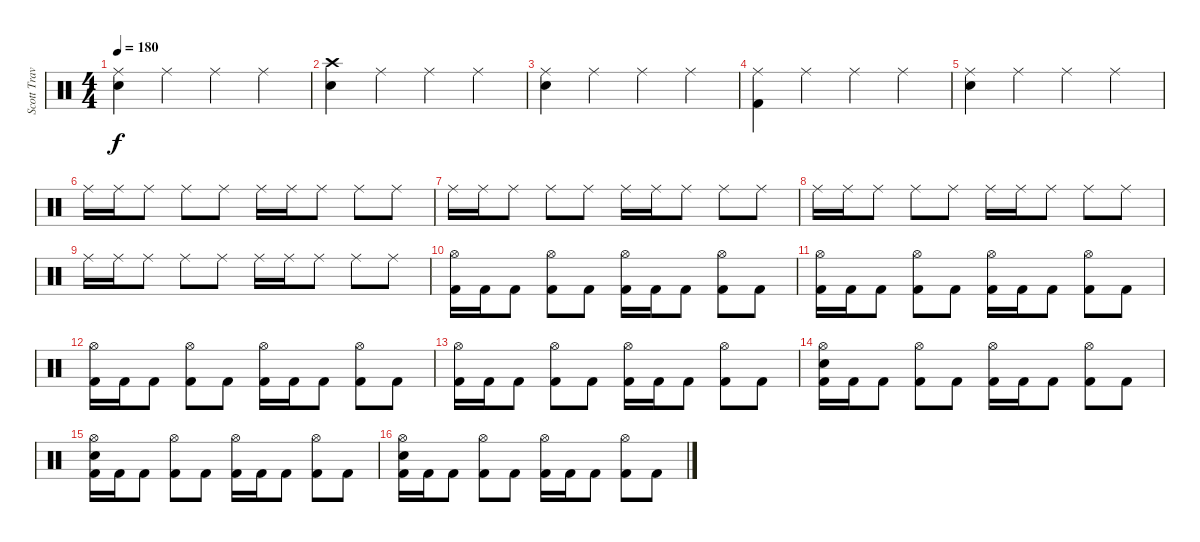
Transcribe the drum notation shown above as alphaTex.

\track ("Scott Travis" "Scott Trav") {instrument percussion}
\staff {score}
\articulation defaults
\ts (4 4)
\tempo 180
\clef neutral
\ks c
("Ride (middle)" "Snare (hit) 2").4{dy f} "Ride (middle)".4 "Ride (middle)".4 "Ride (middle)".4 |
("Crash high (hit)" "Snare (hit) 2").4 "Ride (middle)".4 "Ride (middle)".4 "Ride (middle)".4 |
("Ride (middle)" "Snare (hit) 2").4 "Ride (middle)".4 "Ride (middle)".4 "Ride (middle)".4 |
("Ride (middle)" "Kick (hit) 2").4 "Ride (middle)".4 "Ride (middle)".4 "Ride (middle)".4 |
("Ride (middle)" "Snare (hit) 2").4 "Ride (middle)".4 "Ride (middle)".4 "Ride (middle)".4 |
"Ride (middle)".16 "Ride (middle)".16 "Ride (middle)".8 "Ride (middle)".8 "Ride (middle)".8 "Ride (middle)".16 "Ride (middle)".16 "Ride (middle)".8 "Ride (middle)".8 "Ride (middle)".8 |
"Ride (middle)".16 "Ride (middle)".16 "Ride (middle)".8 "Ride (middle)".8 "Ride (middle)".8 "Ride (middle)".16 "Ride (middle)".16 "Ride (middle)".8 "Ride (middle)".8 "Ride (middle)".8 |
"Ride (middle)".16 "Ride (middle)".16 "Ride (middle)".8 "Ride (middle)".8 "Ride (middle)".8 "Ride (middle)".16 "Ride (middle)".16 "Ride (middle)".8 "Ride (middle)".8 "Ride (middle)".8 |
"Ride (middle)".16 "Ride (middle)".16 "Ride (middle)".8 "Ride (middle)".8 "Ride (middle)".8 "Ride (middle)".16 "Ride (middle)".16 "Ride (middle)".8 "Ride (middle)".8 "Ride (middle)".8 |
("Hi-Hat (open)" "Kick (hit) 2").16 "Kick (hit) 2".16 "Kick (hit) 2".8 ("Hi-Hat (open)" "Kick (hit) 2").8 "Kick (hit) 2".8 ("Hi-Hat (open)" "Kick (hit) 2").16 "Kick (hit) 2".16 "Kick (hit) 2".8 ("Hi-Hat (open)" "Kick (hit) 2").8 "Kick (hit) 2".8 |
("Hi-Hat (open)" "Kick (hit) 2").16 "Kick (hit) 2".16 "Kick (hit) 2".8 ("Hi-Hat (open)" "Kick (hit) 2").8 "Kick (hit) 2".8 ("Hi-Hat (open)" "Kick (hit) 2").16 "Kick (hit) 2".16 "Kick (hit) 2".8 ("Hi-Hat (open)" "Kick (hit) 2").8 "Kick (hit) 2".8 |
("Hi-Hat (open)" "Kick (hit) 2").16 "Kick (hit) 2".16 "Kick (hit) 2".8 ("Hi-Hat (open)" "Kick (hit) 2").8 "Kick (hit) 2".8 ("Hi-Hat (open)" "Kick (hit) 2").16 "Kick (hit) 2".16 "Kick (hit) 2".8 ("Hi-Hat (open)" "Kick (hit) 2").8 "Kick (hit) 2".8 |
("Hi-Hat (open)" "Kick (hit) 2").16 "Kick (hit) 2".16 "Kick (hit) 2".8 ("Hi-Hat (open)" "Kick (hit) 2").8 "Kick (hit) 2".8 ("Hi-Hat (open)" "Kick (hit) 2").16 "Kick (hit) 2".16 "Kick (hit) 2".8 ("Hi-Hat (open)" "Kick (hit) 2").8 "Kick (hit) 2".8 |
("Hi-Hat (open)" "Snare (hit) 2" "Kick (hit) 2").16 "Kick (hit) 2".16 "Kick (hit) 2".8 ("Hi-Hat (open)" "Kick (hit) 2").8 "Kick (hit) 2".8 ("Hi-Hat (open)" "Kick (hit) 2").16 "Kick (hit) 2".16 "Kick (hit) 2".8 ("Hi-Hat (open)" "Kick (hit) 2").8 "Kick (hit) 2".8 |
("Hi-Hat (open)" "Snare (hit) 2" "Kick (hit) 2").16 "Kick (hit) 2".16 "Kick (hit) 2".8 ("Hi-Hat (open)" "Kick (hit) 2").8 "Kick (hit) 2".8 ("Hi-Hat (open)" "Kick (hit) 2").16 "Kick (hit) 2".16 "Kick (hit) 2".8 ("Hi-Hat (open)" "Kick (hit) 2").8 "Kick (hit) 2".8 |
("Hi-Hat (open)" "Snare (hit) 2" "Kick (hit) 2").16 "Kick (hit) 2".16 "Kick (hit) 2".8 ("Hi-Hat (open)" "Kick (hit) 2").8 "Kick (hit) 2".8 ("Hi-Hat (open)" "Kick (hit) 2").16 "Kick (hit) 2".16 "Kick (hit) 2".8 ("Hi-Hat (open)" "Kick (hit) 2").8 "Kick (hit) 2".8
